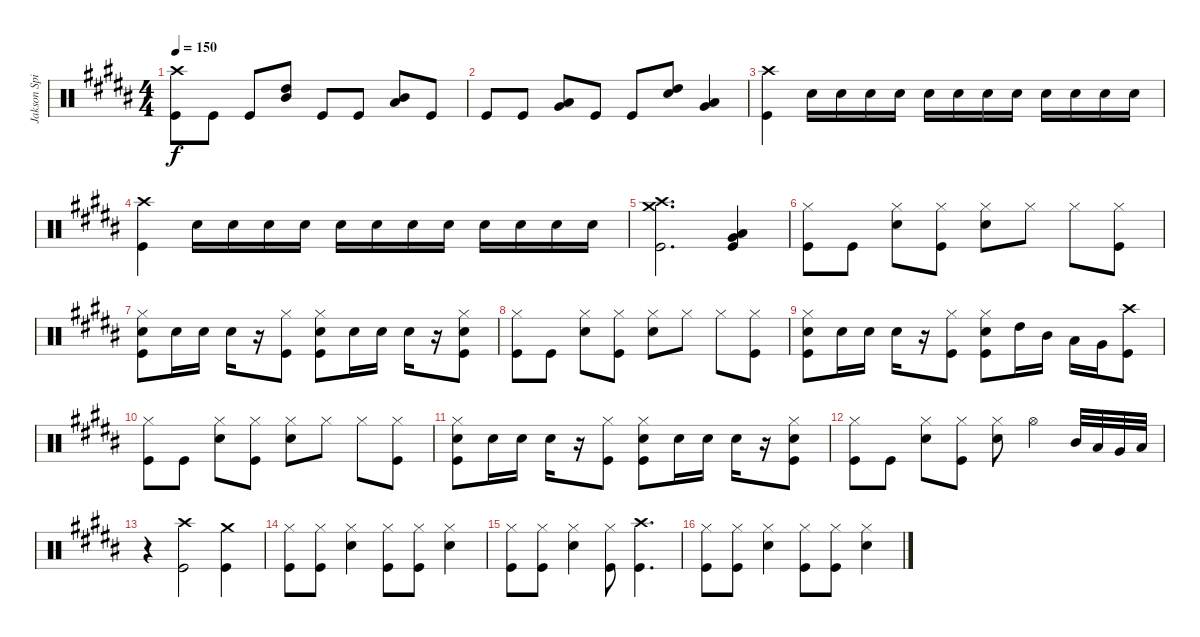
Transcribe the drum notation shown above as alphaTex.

\track ("Jakson Spires Drums" "Jakson Spi") {instrument percussion}
\staff {score}
\articulation defaults
\ts (4 4)
\tempo 150
\clef neutral
\ks b
("Crash high (hit)" "Kick (hit)").8{dy f} "Kick (hit)".8 "Kick (hit)".8 ("High Tom (hit)" "Mid Tom (hit)").8 "Kick (hit)".8 "Kick (hit)".8 ("Mid Tom (hit)" "Low Tom (hit)").8 "Kick (hit)".8 |
"Kick (hit)".8 "Kick (hit)".8 ("Low Tom (hit)" "Very Low Tom (hit)").8 "Kick (hit)".8 "Kick (hit)".8 ("High Tom (hit)" "Snare (hit) 2").8 ("Low Tom (hit)" "Very Low Tom (hit)").4 |
("Crash high (hit)" "Kick (hit)").4 "Snare (hit) 2".16 "Snare (hit) 2".16 "Snare (hit) 2".16 "Snare (hit) 2".16 "Snare (hit) 2".16 "Snare (hit) 2".16 "Snare (hit) 2".16 "Snare (hit) 2".16 "Snare (hit) 2".16 "Snare (hit) 2".16 "Snare (hit) 2".16 "Snare (hit) 2".16 |
("Crash high (hit)" "Kick (hit)").4 "Snare (hit) 2".16 "Snare (hit) 2".16 "Snare (hit) 2".16 "Snare (hit) 2".16 "Snare (hit) 2".16 "Snare (hit) 2".16 "Snare (hit) 2".16 "Snare (hit) 2".16 "Snare (hit) 2".16 "Snare (hit) 2".16 "Snare (hit) 2".16 "Snare (hit) 2".16 |
("Crash high (hit)" "Crash medium (hit)" "Kick (hit)").2{d} ("Very Low Tom (hit)" "Low Floor Tom (hit)" "Kick (hit)").4 |
("Hi-Hat (closed)" "Kick (hit)").8 "Kick (hit)".8 ("Hi-Hat (closed)" "Snare (hit) 2").8 ("Hi-Hat (closed)" "Kick (hit)").8 ("Hi-Hat (closed)" "Snare (hit) 2").8 "Hi-Hat (closed)".8 "Hi-Hat (closed)".8 ("Hi-Hat (closed)" "Kick (hit)").8 |
("Hi-Hat (closed)" "Snare (hit) 2" "Kick (hit)").8 "Snare (hit) 2".16 "Snare (hit) 2".16 "Snare (hit) 2".16 r.16 ("Hi-Hat (closed)" "Kick (hit)").8 ("Hi-Hat (closed)" "Snare (hit) 2" "Kick (hit)").8 "Snare (hit) 2".16 "Snare (hit) 2".16 "Snare (hit) 2".16 r.16 ("Hi-Hat (closed)" "Snare (hit) 2" "Kick (hit)").8 |
("Hi-Hat (closed)" "Kick (hit)").8 "Kick (hit)".8 ("Hi-Hat (closed)" "Snare (hit) 2").8 ("Hi-Hat (closed)" "Kick (hit)").8 ("Hi-Hat (closed)" "Snare (hit) 2").8 "Hi-Hat (closed)".8 "Hi-Hat (closed)".8 ("Hi-Hat (closed)" "Kick (hit)").8 |
("Hi-Hat (closed)" "Snare (hit) 2" "Kick (hit)").8 "Snare (hit) 2".16 "Snare (hit) 2".16 "Snare (hit) 2".16 r.16 ("Hi-Hat (closed)" "Kick (hit)").8 ("Hi-Hat (closed)" "Snare (hit) 2" "Kick (hit)").8 "High Tom (hit)".16 "Mid Tom (hit)".16 "Low Tom (hit)".16 "Very Low Tom (hit)".16 ("Crash high (hit)" "Kick (hit)").8 |
("Hi-Hat (closed)" "Kick (hit)").8 "Kick (hit)".8 ("Hi-Hat (closed)" "Snare (hit) 2").8 ("Hi-Hat (closed)" "Kick (hit)").8 ("Hi-Hat (closed)" "Snare (hit) 2").8 "Hi-Hat (closed)".8 "Hi-Hat (closed)".8 ("Hi-Hat (closed)" "Kick (hit)").8 |
("Hi-Hat (closed)" "Snare (hit) 2" "Kick (hit)").8 "Snare (hit) 2".16 "Snare (hit) 2".16 "Snare (hit) 2".16 r.16 ("Hi-Hat (closed)" "Kick (hit)").8 ("Hi-Hat (closed)" "Snare (hit) 2" "Kick (hit)").8 "Snare (hit) 2".16 "Snare (hit) 2".16 "Snare (hit) 2".16 r.16 ("Hi-Hat (closed)" "Snare (hit) 2" "Kick (hit)").8 |
("Hi-Hat (closed)" "Kick (hit)").8 "Kick (hit)".8 ("Hi-Hat (closed)" "Snare (hit) 2").8 ("Hi-Hat (closed)" "Kick (hit)").8 ("Hi-Hat (closed)" "Snare (hit) 2").8 "Hi-Hat (open)".4 "Mid Tom (hit)".32 "Low Tom (hit)".32 "Very Low Tom (hit)".32 "Low Floor Tom (hit)".32 |
r.4 ("Crash high (hit)" "Kick (hit)").2 ("Crash medium (hit)" "Kick (hit)").4 |
("Hi-Hat (closed)" "Kick (hit)").8 ("Hi-Hat (closed)" "Kick (hit)").8 ("Hi-Hat (closed)" "Snare (hit) 2").4 ("Hi-Hat (closed)" "Kick (hit)").8 ("Hi-Hat (closed)" "Kick (hit)").8 ("Hi-Hat (closed)" "Snare (hit) 2").4 |
("Hi-Hat (closed)" "Kick (hit)").8 ("Hi-Hat (closed)" "Kick (hit)").8 ("Hi-Hat (closed)" "Snare (hit) 2").4 ("Hi-Hat (closed)" "Kick (hit)").8 ("Crash high (hit)" "Kick (hit)").4{d} |
("Hi-Hat (closed)" "Kick (hit)").8 ("Hi-Hat (closed)" "Kick (hit)").8 ("Hi-Hat (closed)" "Snare (hit) 2").4 ("Hi-Hat (closed)" "Kick (hit)").8 ("Hi-Hat (closed)" "Kick (hit)").8 ("Hi-Hat (closed)" "Snare (hit) 2").4
